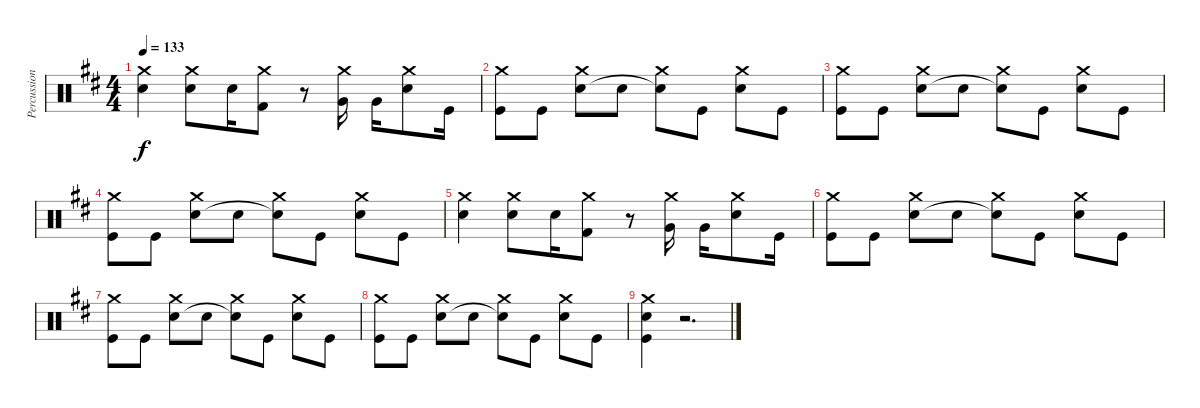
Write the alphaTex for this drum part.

\track ("Percussion" "Percussion") {instrument percussion}
\staff {score}
\articulation defaults
\ts (4 4)
\tempo 133
\clef neutral
\ks d
("Crash medium (hit)" "Snare (hit) 2").4{dy f} ("Crash medium (hit)" "Electric Snare (hit)").8 "Electric Snare (hit)".16 ("Crash medium (hit)" "Kick (hit) 2").8 r.8 ("Crash medium (hit)" "Very Low Tom (hit)").16 "Very Low Tom (hit)".16 ("Crash medium (hit)" "Snare (hit) 2").8 "Kick (hit)".16 |
("Crash medium (hit)" "Kick (hit)").8 "Kick (hit)".8 ("Crash medium (hit)" "Electric Snare (hit)").8 "Snare (hit) 2".8 ("Crash medium (hit)" "Snare (hit)"{t}).8 "Kick (hit)".8 ("Crash medium (hit)" "Snare (hit) 2").8 "Kick (hit)".8 |
("Crash medium (hit)" "Kick (hit)").8 "Kick (hit)".8 ("Crash medium (hit)" "Electric Snare (hit)").8 "Snare (hit) 2".8 ("Crash medium (hit)" "Snare (hit)"{t}).8 "Kick (hit)".8 ("Crash medium (hit)" "Snare (hit) 2").8 "Kick (hit)".8 |
("Crash medium (hit)" "Kick (hit)").8 "Kick (hit)".8 ("Crash medium (hit)" "Electric Snare (hit)").8 "Snare (hit) 2".8 ("Crash medium (hit)" "Snare (hit)"{t}).8 "Kick (hit)".8 ("Crash medium (hit)" "Snare (hit) 2").8 "Kick (hit)".8 |
("Crash medium (hit)" "Snare (hit) 2").4 ("Crash medium (hit)" "Electric Snare (hit)").8 "Electric Snare (hit)".16 ("Crash medium (hit)" "Kick (hit) 2").8 r.8 ("Crash medium (hit)" "Very Low Tom (hit)").16 "Very Low Tom (hit)".16 ("Crash medium (hit)" "Snare (hit) 2").8 "Kick (hit)".16 |
("Crash medium (hit)" "Kick (hit)").8 "Kick (hit)".8 ("Crash medium (hit)" "Electric Snare (hit)").8 "Snare (hit) 2".8 ("Crash medium (hit)" "Snare (hit)"{t}).8 "Kick (hit)".8 ("Crash medium (hit)" "Snare (hit) 2").8 "Kick (hit)".8 |
("Crash medium (hit)" "Kick (hit)").8 "Kick (hit)".8 ("Crash medium (hit)" "Electric Snare (hit)").8 "Snare (hit) 2".8 ("Crash medium (hit)" "Snare (hit)"{t}).8 "Kick (hit)".8 ("Crash medium (hit)" "Snare (hit) 2").8 "Kick (hit)".8 |
("Crash medium (hit)" "Kick (hit)").8 "Kick (hit)".8 ("Crash medium (hit)" "Electric Snare (hit)").8 "Snare (hit) 2".8 ("Crash medium (hit)" "Snare (hit)"{t}).8 "Kick (hit)".8 ("Crash medium (hit)" "Snare (hit) 2").8 "Kick (hit)".8 |
("Crash medium (hit)" "Snare (hit) 2" "Kick (hit)").4 r.2{d}
